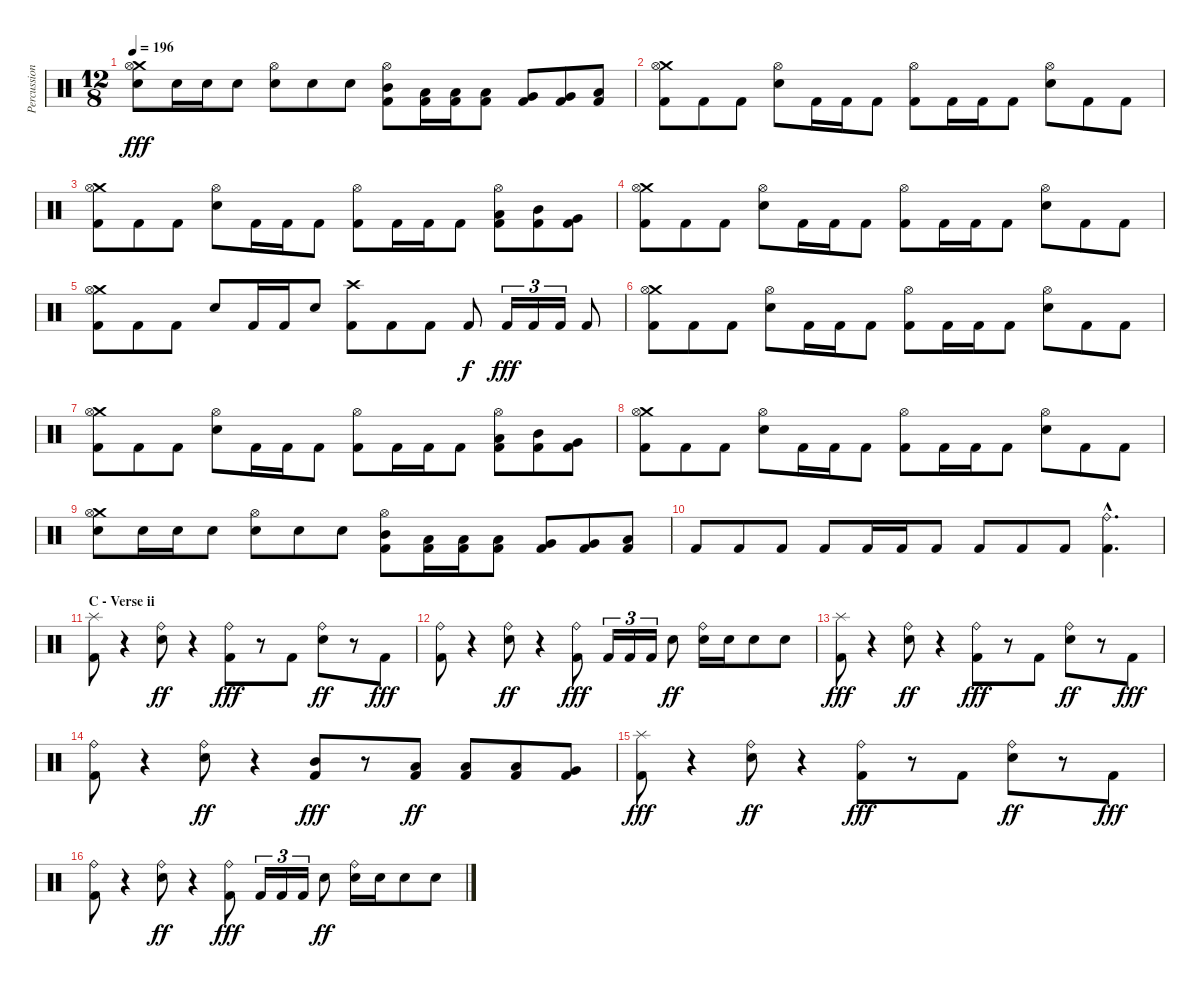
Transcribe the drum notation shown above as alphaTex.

\track ("Percussion" "Percussion") {instrument percussion}
\staff {score}
\articulation defaults
\ts (12 8)
\tempo 196
\clef neutral
\ks c
("Crash medium (hit)" "Hi-Hat (open)" "Snare (hit) 2").8{dy fff} "Snare (hit) 2".16 "Snare (hit) 2".16 "Snare (hit) 2".8 ("Hi-Hat (open)" "Snare (hit) 2").8 "Snare (hit) 2".8 "Snare (hit) 2".8 ("Hi-Hat (open)" "Mid Tom (hit)" "Kick (hit) 2").8 ("Low Tom (hit)" "Kick (hit) 2").16 ("Low Tom (hit)" "Kick (hit) 2").16 ("Low Tom (hit)" "Kick (hit) 2").8 ("Very Low Tom (hit)" "Kick (hit) 2").8 ("Very Low Tom (hit)" "Kick (hit) 2").8 ("Low Floor Tom (hit)" "Kick (hit) 2").8 |
("Crash medium (hit)" "Hi-Hat (open)" "Kick (hit) 2").8 "Kick (hit) 2".8 "Kick (hit) 2".8 ("Hi-Hat (open)" "Snare (hit) 2").8 "Kick (hit) 2".16 "Kick (hit) 2".16 "Kick (hit) 2".8 ("Hi-Hat (open)" "Kick (hit) 2").8 "Kick (hit) 2".16 "Kick (hit) 2".16 "Kick (hit) 2".8 ("Hi-Hat (open)" "Snare (hit) 2").8 "Kick (hit) 2".8 "Kick (hit) 2".8 |
("Crash medium (hit)" "Hi-Hat (open)" "Kick (hit) 2").8 "Kick (hit) 2".8 "Kick (hit) 2".8 ("Hi-Hat (open)" "Snare (hit) 2").8 "Kick (hit) 2".16 "Kick (hit) 2".16 "Kick (hit) 2".8 ("Hi-Hat (open)" "Kick (hit) 2").8 "Kick (hit) 2".16 "Kick (hit) 2".16 "Kick (hit) 2".8 ("Hi-Hat (open)" "Low Tom (hit)" "Kick (hit) 2").8 ("Mid Tom (hit)" "Kick (hit) 2").8 ("Very Low Tom (hit)" "Kick (hit) 2").8 |
("Crash medium (hit)" "Hi-Hat (open)" "Kick (hit) 2").8 "Kick (hit) 2".8 "Kick (hit) 2".8 ("Hi-Hat (open)" "Snare (hit) 2").8 "Kick (hit) 2".16 "Kick (hit) 2".16 "Kick (hit) 2".8 ("Hi-Hat (open)" "Kick (hit) 2").8 "Kick (hit) 2".16 "Kick (hit) 2".16 "Kick (hit) 2".8 ("Hi-Hat (open)" "Snare (hit) 2").8 "Kick (hit) 2".8 "Kick (hit) 2".8 |
("Crash medium (hit)" "Hi-Hat (open)" "Kick (hit) 2").8 "Kick (hit) 2".8 "Kick (hit) 2".8 "Snare (hit) 2".8 "Kick (hit) 2".16 "Kick (hit) 2".16 "Snare (hit) 2".8 ("Crash high (hit)" "Kick (hit) 2").8 "Kick (hit) 2".8 "Kick (hit) 2".8 "Kick (hit) 2".8{dy f} "Kick (hit) 2".16{tu (3 2) dy fff} "Kick (hit) 2".16{tu (3 2)} "Kick (hit) 2".16{tu (3 2)} "Kick (hit) 2".8 |
("Crash medium (hit)" "Hi-Hat (open)" "Kick (hit) 2").8 "Kick (hit) 2".8 "Kick (hit) 2".8 ("Hi-Hat (open)" "Snare (hit) 2").8 "Kick (hit) 2".16 "Kick (hit) 2".16 "Kick (hit) 2".8 ("Hi-Hat (open)" "Kick (hit) 2").8 "Kick (hit) 2".16 "Kick (hit) 2".16 "Kick (hit) 2".8 ("Hi-Hat (open)" "Snare (hit) 2").8 "Kick (hit) 2".8 "Kick (hit) 2".8 |
("Crash medium (hit)" "Hi-Hat (open)" "Kick (hit) 2").8 "Kick (hit) 2".8 "Kick (hit) 2".8 ("Hi-Hat (open)" "Snare (hit) 2").8 "Kick (hit) 2".16 "Kick (hit) 2".16 "Kick (hit) 2".8 ("Hi-Hat (open)" "Kick (hit) 2").8 "Kick (hit) 2".16 "Kick (hit) 2".16 "Kick (hit) 2".8 ("Hi-Hat (open)" "Low Tom (hit)" "Kick (hit) 2").8 ("Mid Tom (hit)" "Kick (hit) 2").8 ("Very Low Tom (hit)" "Kick (hit) 2").8 |
("Crash medium (hit)" "Hi-Hat (open)" "Kick (hit) 2").8 "Kick (hit) 2".8 "Kick (hit) 2".8 ("Hi-Hat (open)" "Snare (hit) 2").8 "Kick (hit) 2".16 "Kick (hit) 2".16 "Kick (hit) 2".8 ("Hi-Hat (open)" "Kick (hit) 2").8 "Kick (hit) 2".16 "Kick (hit) 2".16 "Kick (hit) 2".8 ("Hi-Hat (open)" "Snare (hit) 2").8 "Kick (hit) 2".8 "Kick (hit) 2".8 |
("Crash medium (hit)" "Hi-Hat (open)" "Snare (hit) 2").8 "Snare (hit) 2".16 "Snare (hit) 2".16 "Snare (hit) 2".8 ("Hi-Hat (open)" "Snare (hit) 2").8 "Snare (hit) 2".8 "Snare (hit) 2".8 ("Hi-Hat (open)" "Mid Tom (hit)" "Kick (hit) 2").8 ("Low Tom (hit)" "Kick (hit) 2").16 ("Low Tom (hit)" "Kick (hit) 2").16 ("Low Tom (hit)" "Kick (hit) 2").8 ("Very Low Tom (hit)" "Kick (hit) 2").8 ("Very Low Tom (hit)" "Kick (hit) 2").8 ("Low Floor Tom (hit)" "Kick (hit) 2").8 |
"Kick (hit) 2".8 "Kick (hit) 2".8 "Kick (hit) 2".8 "Kick (hit) 2".8 "Kick (hit) 2".16 "Kick (hit) 2".16 "Kick (hit) 2".8 "Kick (hit) 2".8 "Kick (hit) 2".8 "Kick (hit) 2".8 ("Ride (bell)"{hac} "Kick (hit) 2"{hac}).4{d} |
\section ("" "C - Verse ii")
("Splash (hit)" "Kick (hit) 2").8 r.4 ("Ride (bell)" "Electric Snare (hit)").8{dy ff} r.4 ("Ride (bell)" "Kick (hit) 2").8{dy fff} r.8 "Kick (hit) 2".8 ("Ride (bell)" "Electric Snare (hit)").8{dy ff} r.8 "Kick (hit) 2".8{dy fff} |
("Ride (bell)" "Kick (hit) 2").8 r.4 ("Ride (bell)" "Electric Snare (hit)").8{dy ff} r.4 ("Ride (bell)" "Kick (hit) 2").8{dy fff} "Kick (hit) 2".16{tu (3 2)} "Kick (hit) 2".16{tu (3 2)} "Kick (hit) 2".16{tu (3 2)} "Electric Snare (hit)".8{dy ff} ("Ride (bell)" "Electric Snare (hit)").16 "Electric Snare (hit)".16 "Electric Snare (hit)".8 "Electric Snare (hit)".8 |
("Splash (hit)" "Kick (hit) 2").8{dy fff} r.4 ("Ride (bell)" "Electric Snare (hit)").8{dy ff} r.4 ("Ride (bell)" "Kick (hit) 2").8{dy fff} r.8 "Kick (hit) 2".8 ("Ride (bell)" "Electric Snare (hit)").8{dy ff} r.8 "Kick (hit) 2".8{dy fff} |
("Ride (bell)" "Kick (hit) 2").8 r.4 ("Ride (bell)" "Electric Snare (hit)").8{dy ff} r.4 ("Mid Tom (hit)" "Kick (hit) 2").8{dy fff} r.8 ("Low Tom (hit)" "Kick (hit) 2").8{dy ff} ("Low Tom (hit)" "Kick (hit) 2").8 ("Low Tom (hit)" "Kick (hit) 2").8 ("Very Low Tom (hit)" "Kick (hit) 2").8 |
("Splash (hit)" "Kick (hit) 2").8{dy fff} r.4 ("Ride (bell)" "Electric Snare (hit)").8{dy ff} r.4 ("Ride (bell)" "Kick (hit) 2").8{dy fff} r.8 "Kick (hit) 2".8 ("Ride (bell)" "Electric Snare (hit)").8{dy ff} r.8 "Kick (hit) 2".8{dy fff} |
("Ride (bell)" "Kick (hit) 2").8 r.4 ("Ride (bell)" "Electric Snare (hit)").8{dy ff} r.4 ("Ride (bell)" "Kick (hit) 2").8{dy fff} "Kick (hit) 2".16{tu (3 2)} "Kick (hit) 2".16{tu (3 2)} "Kick (hit) 2".16{tu (3 2)} "Electric Snare (hit)".8{dy ff} ("Ride (bell)" "Electric Snare (hit)").16 "Electric Snare (hit)".16 "Electric Snare (hit)".8 "Electric Snare (hit)".8
